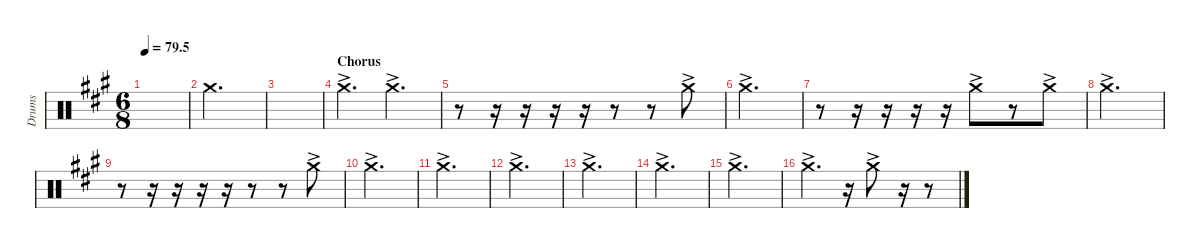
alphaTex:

\defaultSystemsLayout 4
\hideDynamics
\bracketExtendMode nobrackets
\otherSystemsTrackNameOrientation horizontal
\track ("Right crash" "Drums") {instrument percussion}
\staff {score}
\articulation defaults
\ts (6 8)
\tempo
79.5
\accidentals auto
\clef neutral
\ottava regular
\simile none
\scale
0.333333
\ks a
|
\scale
0.333333 "Crash medium (hit)"{acc forcenatural}.2{d} |
\scale
0.333333 |
\section ("" "Chorus")
\scale
0.333333 "Crash medium (hit)"{ac acc forcenatural}.4{d} "Crash medium (hit)"{ac acc forcenatural}.4{d} |
\scale
0.333333 r.8 r.16 r.16 r.16 r.16 r.8 r.8 "Crash medium (hit)"{ac acc forcenatural}.8 |
\scale
0.333333 "Crash medium (hit)"{ac acc forcenatural}.2{d} |
\scale
0.333333 r.8 r.16 r.16 r.16 r.16 "Crash medium (hit)"{ac acc forcenatural}.8 r.8 "Crash medium (hit)"{ac acc forcenatural}.8 |
\scale
0.333333 "Crash medium (hit)"{ac acc forcenatural}.2{d} |
\scale
0.333333 r.8 r.16 r.16 r.16 r.16 r.8 r.8 "Crash medium (hit)"{ac acc forcenatural}.8 |
\scale
0.333333 "Crash medium (hit)"{ac acc forcenatural}.2{d} |
\scale
0.333333 "Crash medium (hit)"{ac acc forcenatural}.2{d} |
\scale
0.333333 "Crash medium (hit)"{ac acc forcenatural}.2{d} |
\scale
0.333333 "Crash medium (hit)"{ac acc forcenatural}.2{d} |
\scale
0.333333 "Crash medium (hit)"{ac acc forcenatural}.2{d} |
\scale
0.333333 "Crash medium (hit)"{ac acc forcenatural}.2{d} |
\scale
0.333333 "Crash medium (hit)"{ac acc forcenatural}.4{d} r.16 "Crash medium (hit)"{ac acc forcenatural}.8 r.16 r.8
